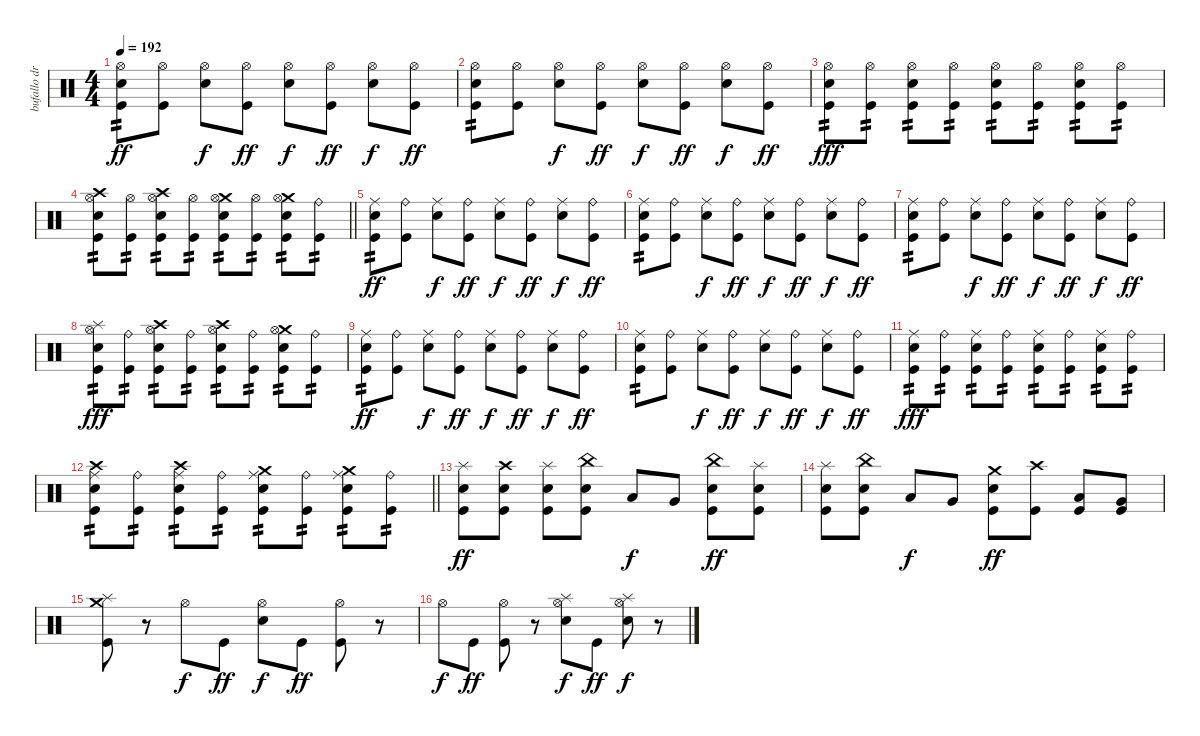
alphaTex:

\track ("bufallo drums" "bufallo dr") {instrument percussion}
\staff {score}
\articulation defaults
\ts (4 4)
\tempo 192
\clef neutral
\ks c
("Hi-Hat (open)" "Electric Snare (hit)" "Kick (hit)").8{tp 2 dy ff} ("Hi-Hat (open)" "Kick (hit)").8 ("Hi-Hat (open)" "Electric Snare (hit)").8{dy f} ("Hi-Hat (open)" "Kick (hit)").8{dy ff} ("Hi-Hat (open)" "Electric Snare (hit)").8{dy f} ("Hi-Hat (open)" "Kick (hit)").8{dy ff} ("Hi-Hat (open)" "Electric Snare (hit)").8{dy f} ("Hi-Hat (open)" "Kick (hit)").8{dy ff} |
("Hi-Hat (open)" "Electric Snare (hit)" "Kick (hit)").8{tp 2} ("Hi-Hat (open)" "Kick (hit)").8 ("Hi-Hat (open)" "Electric Snare (hit)").8{dy f} ("Hi-Hat (open)" "Kick (hit)").8{dy ff} ("Hi-Hat (open)" "Electric Snare (hit)").8{dy f} ("Hi-Hat (open)" "Kick (hit)").8{dy ff} ("Hi-Hat (open)" "Electric Snare (hit)").8{dy f} ("Hi-Hat (open)" "Kick (hit)").8{dy ff} |
("Hi-Hat (open)" "Electric Snare (hit)" "Kick (hit)").8{tp 2 dy fff} ("Hi-Hat (open)" "Kick (hit)").8{tp 2} ("Hi-Hat (open)" "Electric Snare (hit)" "Kick (hit)").8{tp 2} ("Hi-Hat (open)" "Kick (hit)").8{tp 2} ("Hi-Hat (open)" "Electric Snare (hit)" "Kick (hit)").8{tp 2} ("Hi-Hat (open)" "Kick (hit)").8{tp 2} ("Hi-Hat (open)" "Electric Snare (hit)" "Kick (hit)").8{tp 2} ("Hi-Hat (open)" "Kick (hit)").8{tp 2} |
\barLineRight lightlight
("Crash high (hit)" "Hi-Hat (open)" "Electric Snare (hit)" "Kick (hit)").8{tp 2} ("Hi-Hat (open)" "Kick (hit)").8{tp 2} ("Crash high (hit)" "Hi-Hat (open)" "Electric Snare (hit)" "Kick (hit)").8{tp 2} ("Hi-Hat (open)" "Kick (hit)").8{tp 2} ("Crash medium (hit)" "Hi-Hat (open)" "Electric Snare (hit)" "Kick (hit)").8{tp 2} ("Hi-Hat (open)" "Kick (hit)").8{tp 2} ("Crash medium (hit)" "Hi-Hat (open)" "Electric Snare (hit)" "Kick (hit)").8{tp 2} ("Ride (bell)" "Kick (hit)").8{tp 2} |
("Ride (middle)" "Electric Snare (hit)" "Kick (hit)").8{tp 2 dy ff} ("Ride (bell)" "Kick (hit)").8 ("Ride (middle)" "Electric Snare (hit)").8{dy f} ("Ride (bell)" "Kick (hit)").8{dy ff} ("Ride (middle)" "Electric Snare (hit)").8{dy f} ("Ride (bell)" "Kick (hit)").8{dy ff} ("Ride (middle)" "Electric Snare (hit)").8{dy f} ("Ride (bell)" "Kick (hit)").8{dy ff} |
("Ride (middle)" "Electric Snare (hit)" "Kick (hit)").8{tp 2} ("Ride (bell)" "Kick (hit)").8 ("Ride (middle)" "Electric Snare (hit)").8{dy f} ("Ride (bell)" "Kick (hit)").8{dy ff} ("Ride (middle)" "Electric Snare (hit)").8{dy f} ("Ride (bell)" "Kick (hit)").8{dy ff} ("Ride (middle)" "Electric Snare (hit)").8{dy f} ("Ride (bell)" "Kick (hit)").8{dy ff} |
("Ride (middle)" "Electric Snare (hit)" "Kick (hit)").8{tp 2} ("Ride (bell)" "Kick (hit)").8 ("Ride (middle)" "Electric Snare (hit)").8{dy f} ("Ride (bell)" "Kick (hit)").8{dy ff} ("Ride (middle)" "Electric Snare (hit)").8{dy f} ("Ride (bell)" "Kick (hit)").8{dy ff} ("Ride (middle)" "Electric Snare (hit)").8{dy f} ("Ride (bell)" "Kick (hit)").8{dy ff} |
("Splash (hit)" "Hi-Hat (open)" "Electric Snare (hit)" "Kick (hit)").8{tp 2 dy fff} ("Ride (bell)" "Kick (hit)").8{tp 2} ("Crash high (hit)" "Hi-Hat (open)" "Electric Snare (hit)" "Kick (hit)").8{tp 2} ("Ride (bell)" "Kick (hit)").8{tp 2} ("Crash high (hit)" "Hi-Hat (open)" "Electric Snare (hit)" "Kick (hit)").8{tp 2} ("Ride (bell)" "Kick (hit)").8{tp 2} ("Crash medium (hit)" "Hi-Hat (open)" "Electric Snare (hit)" "Kick (hit)").8{tp 2} ("Ride (bell)" "Kick (hit)").8{tp 2} |
("Ride (middle)" "Electric Snare (hit)" "Kick (hit)").8{tp 2 dy ff} ("Ride (bell)" "Kick (hit)").8 ("Ride (middle)" "Electric Snare (hit)").8{dy f} ("Ride (bell)" "Kick (hit)").8{dy ff} ("Ride (middle)" "Electric Snare (hit)").8{dy f} ("Ride (bell)" "Kick (hit)").8{dy ff} ("Ride (middle)" "Electric Snare (hit)").8{dy f} ("Ride (bell)" "Kick (hit)").8{dy ff} |
("Ride (middle)" "Electric Snare (hit)" "Kick (hit)").8{tp 2} ("Ride (bell)" "Kick (hit)").8 ("Ride (middle)" "Electric Snare (hit)").8{dy f} ("Ride (bell)" "Kick (hit)").8{dy ff} ("Ride (middle)" "Electric Snare (hit)").8{dy f} ("Ride (bell)" "Kick (hit)").8{dy ff} ("Ride (middle)" "Electric Snare (hit)").8{dy f} ("Ride (bell)" "Kick (hit)").8{dy ff} |
("Ride (middle)" "Electric Snare (hit)" "Kick (hit)").8{tp 2 dy fff} ("Ride (bell)" "Kick (hit)").8{tp 2} ("Ride (middle)" "Electric Snare (hit)" "Kick (hit)").8{tp 2} ("Ride (bell)" "Kick (hit)").8{tp 2} ("Ride (middle)" "Electric Snare (hit)" "Kick (hit)").8{tp 2} ("Ride (bell)" "Kick (hit)").8{tp 2} ("Ride (middle)" "Electric Snare (hit)" "Kick (hit)").8{tp 2} ("Ride (bell)" "Kick (hit)").8{tp 2} |
\barLineRight lightlight
("Crash high (hit)" "Ride (middle)" "Electric Snare (hit)" "Kick (hit)").8{tp 2} ("Ride (bell)" "Kick (hit)").8{tp 2} ("Crash high (hit)" "Ride (middle)" "Electric Snare (hit)" "Kick (hit)").8{tp 2} ("Ride (bell)" "Kick (hit)").8{tp 2} ("Crash medium (hit)" "Ride (middle)" "Electric Snare (hit)" "Kick (hit)").8{tp 2} ("Ride (bell)" "Kick (hit)").8{tp 2} ("Crash medium (hit)" "Ride (middle)" "Electric Snare (hit)" "Kick (hit)").8{tp 2} ("Ride (bell)" "Kick (hit)").8{tp 2} |
("Splash (hit)" "Electric Snare (hit)" "Kick (hit)").8{dy ff} ("Crash high (hit)" "Electric Snare (hit)" "Kick (hit)").8 ("Splash (hit)" "Electric Snare (hit)" "Kick (hit)").8 ("China (hit)" "Electric Snare (hit)" "Kick (hit)").8 "Low Tom (hit)".8{dy f} "Very Low Tom (hit)".8 ("China (hit)" "Electric Snare (hit)" "Kick (hit)").8{dy ff} ("Splash (hit)" "Electric Snare (hit)" "Kick (hit)").8 |
("Splash (hit)" "Electric Snare (hit)" "Kick (hit)").8 ("China (hit)" "Electric Snare (hit)" "Kick (hit)").8 "Low Tom (hit)".8{dy f} "Very Low Tom (hit)".8 ("Crash medium (hit)" "Electric Snare (hit)" "Kick (hit)").8{dy ff} ("Crash high (hit)" "Kick (hit)").8 ("Low Tom (hit)" "Kick (hit)").8 ("Very Low Tom (hit)" "Kick (hit)").8 |
("Crash medium (hit)" "Splash (hit)" "Kick (hit)").8 r.8 "Hi-Hat (open)".8{dy f} "Kick (hit)".8{dy ff} ("Hi-Hat (open)" "Electric Snare (hit)").8{dy f} "Kick (hit)".8{dy ff} ("Hi-Hat (open)" "Kick (hit)").8 r.8 |
"Hi-Hat (open)".8{dy f} "Kick (hit)".8{dy ff} ("Hi-Hat (open)" "Kick (hit)").8 r.8 ("Hi-Hat (open)" "Splash (hit)" "Electric Snare (hit)").8{dy f} "Kick (hit)".8{dy ff} ("Hi-Hat (open)" "Splash (hit)" "Electric Snare (hit)").8{dy f} r.8
